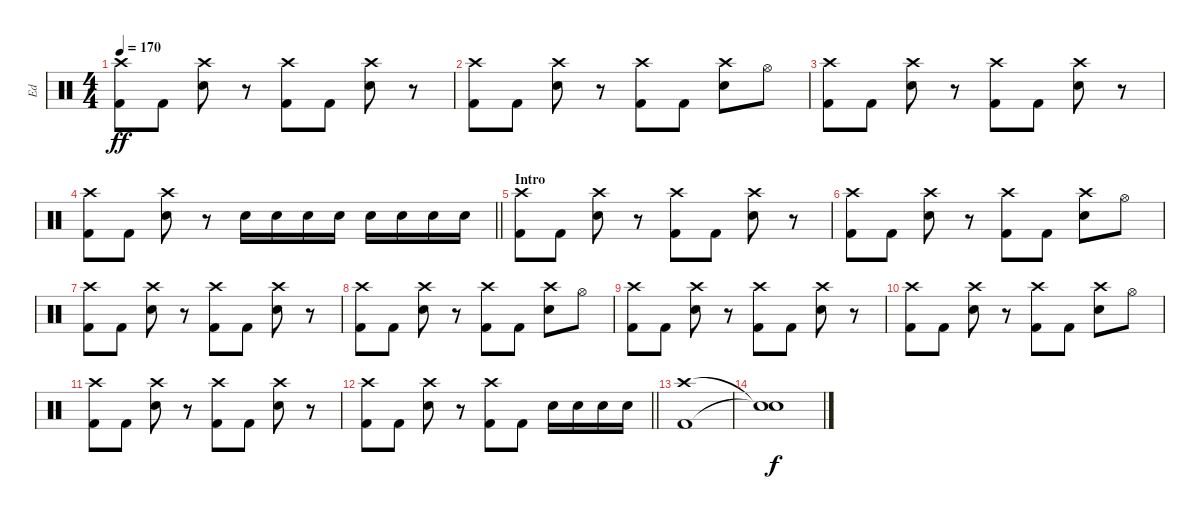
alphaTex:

\track ("Ed" "Ed") {instrument percussion}
\staff {score}
\articulation defaults
\ts (4 4)
\tempo 170
\clef neutral
\ks c
("Kick (hit) 2" "Crash high (hit)").8{dy ff} "Kick (hit) 2".8 ("Snare (hit) 2" "Crash high (hit)").8 r.8 ("Kick (hit) 2" "Crash high (hit)").8 "Kick (hit) 2".8 ("Snare (hit) 2" "Crash high (hit)").8 r.8 |
("Kick (hit) 2" "Crash high (hit)").8 "Kick (hit) 2".8 ("Snare (hit) 2" "Crash high (hit)").8 r.8 ("Kick (hit) 2" "Crash high (hit)").8 "Kick (hit) 2".8 ("Snare (hit) 2" "Crash high (hit)").8 "Hi-Hat (open)".8 |
("Kick (hit) 2" "Crash high (hit)").8 "Kick (hit) 2".8 ("Snare (hit) 2" "Crash high (hit)").8 r.8 ("Kick (hit) 2" "Crash high (hit)").8 "Kick (hit) 2".8 ("Snare (hit) 2" "Crash high (hit)").8 r.8 |
\barLineRight lightlight
("Kick (hit) 2" "Crash high (hit)").8 "Kick (hit) 2".8 ("Snare (hit) 2" "Crash high (hit)").8 r.8 "Snare (hit) 2".16 "Snare (hit) 2".16 "Snare (hit) 2".16 "Snare (hit) 2".16 "Snare (hit) 2".16 "Snare (hit) 2".16 "Snare (hit) 2".16 "Snare (hit) 2".16 |
\section ("" "Intro")
("Kick (hit) 2" "Crash high (hit)").8 "Kick (hit) 2".8 ("Snare (hit) 2" "Crash high (hit)").8 r.8 ("Kick (hit) 2" "Crash high (hit)").8 "Kick (hit) 2".8 ("Snare (hit) 2" "Crash high (hit)").8 r.8 |
("Kick (hit) 2" "Crash high (hit)").8 "Kick (hit) 2".8 ("Snare (hit) 2" "Crash high (hit)").8 r.8 ("Kick (hit) 2" "Crash high (hit)").8 "Kick (hit) 2".8 ("Snare (hit) 2" "Crash high (hit)").8 "Hi-Hat (open)".8 |
("Kick (hit) 2" "Crash high (hit)").8 "Kick (hit) 2".8 ("Snare (hit) 2" "Crash high (hit)").8 r.8 ("Kick (hit) 2" "Crash high (hit)").8 "Kick (hit) 2".8 ("Snare (hit) 2" "Crash high (hit)").8 r.8 |
("Kick (hit) 2" "Crash high (hit)").8 "Kick (hit) 2".8 ("Snare (hit) 2" "Crash high (hit)").8 r.8 ("Kick (hit) 2" "Crash high (hit)").8 "Kick (hit) 2".8 ("Snare (hit) 2" "Crash high (hit)").8 "Hi-Hat (open)".8 |
("Kick (hit) 2" "Crash high (hit)").8 "Kick (hit) 2".8 ("Snare (hit) 2" "Crash high (hit)").8 r.8 ("Kick (hit) 2" "Crash high (hit)").8 "Kick (hit) 2".8 ("Snare (hit) 2" "Crash high (hit)").8 r.8 |
("Kick (hit) 2" "Crash high (hit)").8 "Kick (hit) 2".8 ("Snare (hit) 2" "Crash high (hit)").8 r.8 ("Kick (hit) 2" "Crash high (hit)").8 "Kick (hit) 2".8 ("Snare (hit) 2" "Crash high (hit)").8 "Hi-Hat (open)".8 |
("Kick (hit) 2" "Crash high (hit)").8 "Kick (hit) 2".8 ("Snare (hit) 2" "Crash high (hit)").8 r.8 ("Kick (hit) 2" "Crash high (hit)").8 "Kick (hit) 2".8 ("Snare (hit) 2" "Crash high (hit)").8 r.8 |
\barLineRight lightlight
("Kick (hit) 2" "Crash high (hit)").8 "Kick (hit) 2".8 ("Snare (hit) 2" "Crash high (hit)").8 r.8 ("Kick (hit) 2" "Crash high (hit)").8 "Kick (hit) 2".8 "Snare (hit) 2".16 "Snare (hit) 2".16 "Snare (hit) 2".16 "Snare (hit) 2".16 |
("Crash high (hit)" "Kick (hit) 2").1 |
("Snare (hit)"{t} "Snare (hit)"{t}).1{dy f}
